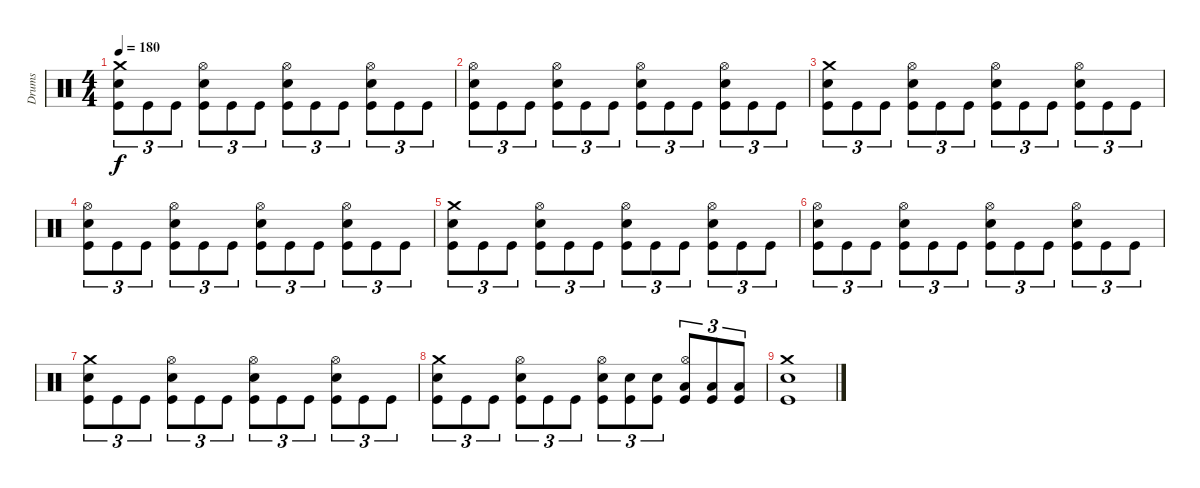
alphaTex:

\track ("Drums" "Drums") {instrument percussion}
\staff {score}
\articulation defaults
\ts (4 4)
\tempo 180
\clef neutral
\ks c
("Crash medium (hit)" "Electric Snare (hit)" "Kick (hit)").8{tu (3 2) dy f} "Kick (hit)".8{tu (3 2)} "Kick (hit)".8{tu (3 2)} ("Hi-Hat (open)" "Electric Snare (hit)" "Kick (hit)").8{tu (3 2)} "Kick (hit)".8{tu (3 2)} "Kick (hit)".8{tu (3 2)} ("Hi-Hat (open)" "Electric Snare (hit)" "Kick (hit)").8{tu (3 2)} "Kick (hit)".8{tu (3 2)} "Kick (hit)".8{tu (3 2)} ("Hi-Hat (open)" "Electric Snare (hit)" "Kick (hit)").8{tu (3 2)} "Kick (hit)".8{tu (3 2)} "Kick (hit)".8{tu (3 2)} |
("Hi-Hat (open)" "Electric Snare (hit)" "Kick (hit)").8{tu (3 2)} "Kick (hit)".8{tu (3 2)} "Kick (hit)".8{tu (3 2)} ("Hi-Hat (open)" "Electric Snare (hit)" "Kick (hit)").8{tu (3 2)} "Kick (hit)".8{tu (3 2)} "Kick (hit)".8{tu (3 2)} ("Hi-Hat (open)" "Electric Snare (hit)" "Kick (hit)").8{tu (3 2)} "Kick (hit)".8{tu (3 2)} "Kick (hit)".8{tu (3 2)} ("Hi-Hat (open)" "Electric Snare (hit)" "Kick (hit)").8{tu (3 2)} "Kick (hit)".8{tu (3 2)} "Kick (hit)".8{tu (3 2)} |
("Crash medium (hit)" "Electric Snare (hit)" "Kick (hit)").8{tu (3 2)} "Kick (hit)".8{tu (3 2)} "Kick (hit)".8{tu (3 2)} ("Hi-Hat (open)" "Electric Snare (hit)" "Kick (hit)").8{tu (3 2)} "Kick (hit)".8{tu (3 2)} "Kick (hit)".8{tu (3 2)} ("Hi-Hat (open)" "Electric Snare (hit)" "Kick (hit)").8{tu (3 2)} "Kick (hit)".8{tu (3 2)} "Kick (hit)".8{tu (3 2)} ("Hi-Hat (open)" "Electric Snare (hit)" "Kick (hit)").8{tu (3 2)} "Kick (hit)".8{tu (3 2)} "Kick (hit)".8{tu (3 2)} |
("Hi-Hat (open)" "Electric Snare (hit)" "Kick (hit)").8{tu (3 2)} "Kick (hit)".8{tu (3 2)} "Kick (hit)".8{tu (3 2)} ("Hi-Hat (open)" "Electric Snare (hit)" "Kick (hit)").8{tu (3 2)} "Kick (hit)".8{tu (3 2)} "Kick (hit)".8{tu (3 2)} ("Hi-Hat (open)" "Electric Snare (hit)" "Kick (hit)").8{tu (3 2)} "Kick (hit)".8{tu (3 2)} "Kick (hit)".8{tu (3 2)} ("Hi-Hat (open)" "Electric Snare (hit)" "Kick (hit)").8{tu (3 2)} "Kick (hit)".8{tu (3 2)} "Kick (hit)".8{tu (3 2)} |
("Crash medium (hit)" "Electric Snare (hit)" "Kick (hit)").8{tu (3 2)} "Kick (hit)".8{tu (3 2)} "Kick (hit)".8{tu (3 2)} ("Hi-Hat (open)" "Electric Snare (hit)" "Kick (hit)").8{tu (3 2)} "Kick (hit)".8{tu (3 2)} "Kick (hit)".8{tu (3 2)} ("Hi-Hat (open)" "Electric Snare (hit)" "Kick (hit)").8{tu (3 2)} "Kick (hit)".8{tu (3 2)} "Kick (hit)".8{tu (3 2)} ("Hi-Hat (open)" "Electric Snare (hit)" "Kick (hit)").8{tu (3 2)} "Kick (hit)".8{tu (3 2)} "Kick (hit)".8{tu (3 2)} |
("Hi-Hat (open)" "Electric Snare (hit)" "Kick (hit)").8{tu (3 2)} "Kick (hit)".8{tu (3 2)} "Kick (hit)".8{tu (3 2)} ("Hi-Hat (open)" "Electric Snare (hit)" "Kick (hit)").8{tu (3 2)} "Kick (hit)".8{tu (3 2)} "Kick (hit)".8{tu (3 2)} ("Hi-Hat (open)" "Electric Snare (hit)" "Kick (hit)").8{tu (3 2)} "Kick (hit)".8{tu (3 2)} "Kick (hit)".8{tu (3 2)} ("Hi-Hat (open)" "Electric Snare (hit)" "Kick (hit)").8{tu (3 2)} "Kick (hit)".8{tu (3 2)} "Kick (hit)".8{tu (3 2)} |
("Crash medium (hit)" "Electric Snare (hit)" "Kick (hit)").8{tu (3 2)} "Kick (hit)".8{tu (3 2)} "Kick (hit)".8{tu (3 2)} ("Hi-Hat (open)" "Electric Snare (hit)" "Kick (hit)").8{tu (3 2)} "Kick (hit)".8{tu (3 2)} "Kick (hit)".8{tu (3 2)} ("Hi-Hat (open)" "Electric Snare (hit)" "Kick (hit)").8{tu (3 2)} "Kick (hit)".8{tu (3 2)} "Kick (hit)".8{tu (3 2)} ("Hi-Hat (open)" "Electric Snare (hit)" "Kick (hit)").8{tu (3 2)} "Kick (hit)".8{tu (3 2)} "Kick (hit)".8{tu (3 2)} |
("Crash medium (hit)" "Electric Snare (hit)" "Kick (hit)").8{tu (3 2)} "Kick (hit)".8{tu (3 2)} "Kick (hit)".8{tu (3 2)} ("Hi-Hat (open)" "Electric Snare (hit)" "Kick (hit)").8{tu (3 2)} "Kick (hit)".8{tu (3 2)} "Kick (hit)".8{tu (3 2)} ("Hi-Hat (open)" "Electric Snare (hit)" "Kick (hit)").8{tu (3 2)} ("Electric Snare (hit)" "Kick (hit)").8{tu (3 2)} ("Electric Snare (hit)" "Kick (hit)").8{tu (3 2)} ("Hi-Hat (open)" "Low Tom (hit)" "Kick (hit)").8{tu (3 2)} ("Low Tom (hit)" "Kick (hit)").8{tu (3 2)} ("Low Tom (hit)" "Kick (hit)").8{tu (3 2)} |
("Crash medium (hit)" "Electric Snare (hit)" "Kick (hit)").1
